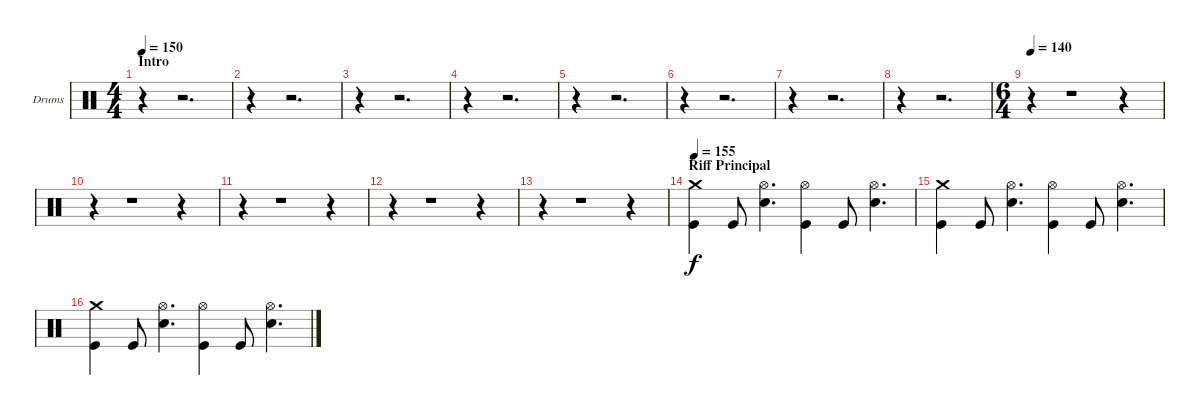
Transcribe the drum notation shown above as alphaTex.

\defaultSystemsLayout 4
\bracketExtendMode groupsimilarinstruments
\firstSystemTrackNameOrientation horizontal
\otherSystemsTrackNameOrientation horizontal
\track ("Drumkit" "Drums") {instrument percussion}
\staff {score}
\articulation defaults
\ts (4 4)
\section ("" "Intro")
\tempo 150
\clef neutral
\ks c
r.4{dy f} r.2{d} |
r.4 r.2{d} |
r.4 r.2{d} |
r.4 r.2{d} |
r.4 r.2{d} |
r.4 r.2{d} |
r.4 r.2{d} |
r.4 r.2{d} |
\ts (6 4)
\tempo 140
r.4 r.1 r.4 |
r.4 r.1 r.4 |
r.4 r.1 r.4 |
r.4 r.1 r.4 |
r.4 r.1 r.4 |
\section ("" "Riff Principal")
\tempo 155
("Crash medium (hit)" "Kick (hit)").4 "Kick (hit)".8 ("Hi-Hat (open)" "Snare (hit) 2").4{d} ("Hi-Hat (open)" "Kick (hit)").4 "Kick (hit)".8 ("Hi-Hat (open)" "Snare (hit) 2").4{d} |
("Crash medium (hit)" "Kick (hit)").4 "Kick (hit)".8 ("Hi-Hat (open)" "Snare (hit) 2").4{d} ("Hi-Hat (open)" "Kick (hit)").4 "Kick (hit)".8 ("Hi-Hat (open)" "Snare (hit) 2").4{d} |
("Crash medium (hit)" "Kick (hit)").4 "Kick (hit)".8 ("Hi-Hat (open)" "Snare (hit) 2").4{d} ("Hi-Hat (open)" "Kick (hit)").4 "Kick (hit)".8 ("Hi-Hat (open)" "Snare (hit) 2").4{d}
